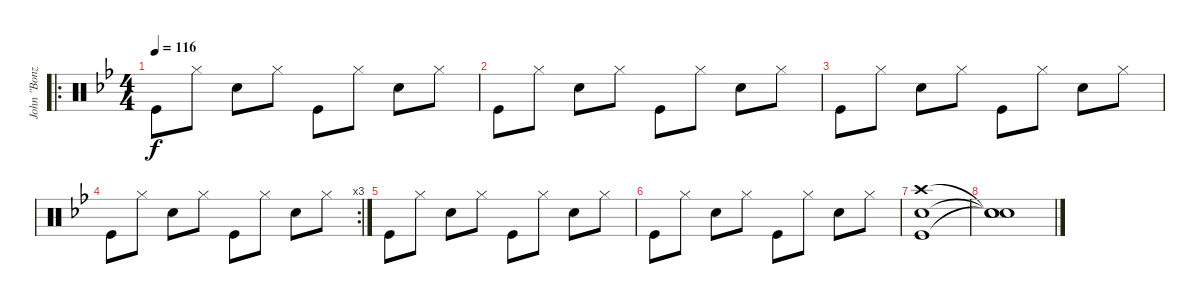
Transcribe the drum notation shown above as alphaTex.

\track ("John \"Bonzo\" Bonham" "John \"Bonz") {instrument percussion}
\staff {score}
\articulation defaults
\ro
\ts (4 4)
\tempo 116
\clef neutral
\ks bb "Kick (hit)".8{dy f} "Hi-Hat (closed)".8 "Snare (hit) 2".8 "Hi-Hat (closed)".8 "Kick (hit)".8 "Hi-Hat (closed)".8 "Snare (hit) 2".8 "Hi-Hat (closed)".8
|
"Kick (hit)".8 "Hi-Hat (closed)".8 "Snare (hit) 2".8 "Hi-Hat (closed)".8 "Kick (hit)".8 "Hi-Hat (closed)".8 "Snare (hit) 2".8 "Hi-Hat (closed)".8 |
"Kick (hit)".8 "Hi-Hat (closed)".8 "Snare (hit) 2".8 "Hi-Hat (closed)".8 "Kick (hit)".8 "Hi-Hat (closed)".8 "Snare (hit) 2".8 "Hi-Hat (closed)".8 |
\rc 3 "Kick (hit)".8 "Hi-Hat (closed)".8 "Snare (hit) 2".8 "Hi-Hat (closed)".8 "Kick (hit)".8 "Hi-Hat (closed)".8 "Snare (hit) 2".8 "Hi-Hat (closed)".8
|
"Kick (hit)".8 "Hi-Hat (closed)".8 "Snare (hit) 2".8 "Hi-Hat (closed)".8 "Kick (hit)".8 "Hi-Hat (closed)".8 "Snare (hit) 2".8 "Hi-Hat (closed)".8 |
"Kick (hit)".8 "Hi-Hat (closed)".8 "Snare (hit) 2".8 "Hi-Hat (closed)".8 "Kick (hit)".8 "Hi-Hat (closed)".8 "Snare (hit) 2".8 "Hi-Hat (closed)".8 |
("Kick (hit)" "Snare (hit) 2" "Crash high (hit)").1 |
("Snare (hit)"{t} "Snare (hit)"{t} "Snare (hit)"{t}).1
